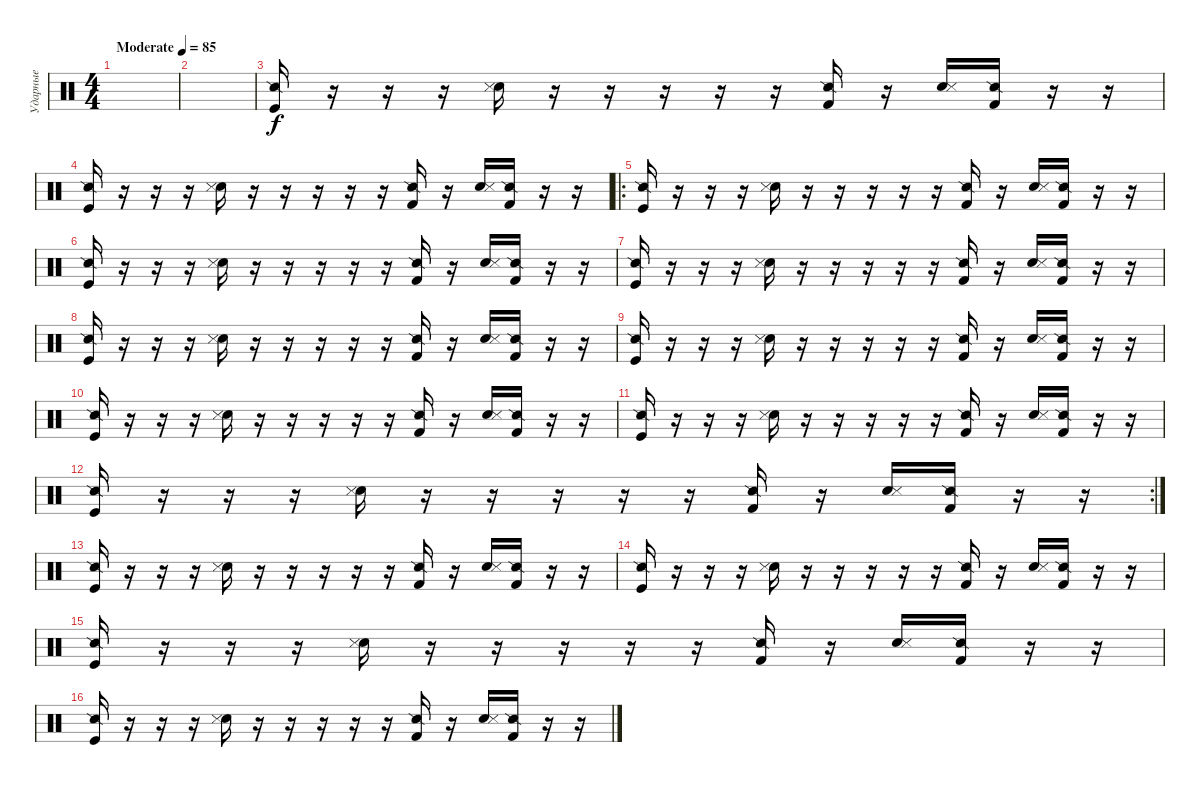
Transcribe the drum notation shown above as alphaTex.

\track ("Ударные" "Ударные") {instrument percussion}
\staff {score}
\articulation defaults
\ts (4 4)
\tempo (85 "Moderate")
\clef neutral
\ks c
|
|
("Kick (hit)" "Snare (side stick) 2").16 r.16 r.16 r.16 ("Snare (hit) 2" "Snare (side stick) 3").16 r.16 r.16 r.16 r.16 r.16 ("Kick (hit) 2" "Snare (side stick) 2").16 r.16 ("Snare (hit) 2" "Snare (side stick) 3").16 ("Kick (hit) 2" "Snare (side stick) 2").16 r.16 r.16 |
("Kick (hit)" "Snare (side stick) 2").16 r.16 r.16 r.16 ("Snare (hit) 2" "Snare (side stick) 3").16 r.16 r.16 r.16 r.16 r.16 ("Kick (hit) 2" "Snare (side stick) 2").16 r.16 ("Snare (hit) 2" "Snare (side stick) 3").16 ("Kick (hit) 2" "Snare (side stick) 2").16 r.16 r.16 |
\ro
("Kick (hit)" "Snare (side stick) 2").16 r.16 r.16 r.16 ("Snare (hit) 2" "Snare (side stick) 3").16 r.16 r.16 r.16 r.16 r.16 ("Kick (hit) 2" "Snare (side stick) 2").16 r.16 ("Snare (hit) 2" "Snare (side stick) 3").16 ("Kick (hit) 2" "Snare (side stick) 2").16 r.16 r.16 |
("Kick (hit)" "Snare (side stick) 2").16 r.16 r.16 r.16 ("Snare (hit) 2" "Snare (side stick) 3").16 r.16 r.16 r.16 r.16 r.16 ("Kick (hit) 2" "Snare (side stick) 2").16 r.16 ("Snare (hit) 2" "Snare (side stick) 3").16 ("Kick (hit) 2" "Snare (side stick) 2").16 r.16 r.16 |
("Kick (hit)" "Snare (side stick) 2").16 r.16 r.16 r.16 ("Snare (hit) 2" "Snare (side stick) 3").16 r.16 r.16 r.16 r.16 r.16 ("Kick (hit) 2" "Snare (side stick) 2").16 r.16 ("Snare (hit) 2" "Snare (side stick) 3").16 ("Kick (hit) 2" "Snare (side stick) 2").16 r.16 r.16 |
("Kick (hit)" "Snare (side stick) 2").16 r.16 r.16 r.16 ("Snare (hit) 2" "Snare (side stick) 3").16 r.16 r.16 r.16 r.16 r.16 ("Kick (hit) 2" "Snare (side stick) 2").16 r.16 ("Snare (hit) 2" "Snare (side stick) 3").16 ("Kick (hit) 2" "Snare (side stick) 2").16 r.16 r.16 |
("Kick (hit)" "Snare (side stick) 2").16 r.16 r.16 r.16 ("Snare (hit) 2" "Snare (side stick) 3").16 r.16 r.16 r.16 r.16 r.16 ("Kick (hit) 2" "Snare (side stick) 2").16 r.16 ("Snare (hit) 2" "Snare (side stick) 3").16 ("Kick (hit) 2" "Snare (side stick) 2").16 r.16 r.16 |
("Kick (hit)" "Snare (side stick) 2").16 r.16 r.16 r.16 ("Snare (hit) 2" "Snare (side stick) 3").16 r.16 r.16 r.16 r.16 r.16 ("Kick (hit) 2" "Snare (side stick) 2").16 r.16 ("Snare (hit) 2" "Snare (side stick) 3").16 ("Kick (hit) 2" "Snare (side stick) 2").16 r.16 r.16 |
("Kick (hit)" "Snare (side stick) 2").16 r.16 r.16 r.16 ("Snare (hit) 2" "Snare (side stick) 3").16 r.16 r.16 r.16 r.16 r.16 ("Kick (hit) 2" "Snare (side stick) 2").16 r.16 ("Snare (hit) 2" "Snare (side stick) 3").16 ("Kick (hit) 2" "Snare (side stick) 2").16 r.16 r.16 |
\rc 2
("Kick (hit)" "Snare (side stick) 2").16 r.16 r.16 r.16 ("Snare (hit) 2" "Snare (side stick) 3").16 r.16 r.16 r.16 r.16 r.16 ("Kick (hit) 2" "Snare (side stick) 2").16 r.16 ("Snare (hit) 2" "Snare (side stick) 3").16 ("Kick (hit) 2" "Snare (side stick) 2").16 r.16 r.16 |
("Kick (hit)" "Snare (side stick) 2").16 r.16 r.16 r.16 ("Snare (hit) 2" "Snare (side stick) 3").16 r.16 r.16 r.16 r.16 r.16 ("Kick (hit) 2" "Snare (side stick) 2").16 r.16 ("Snare (hit) 2" "Snare (side stick) 3").16 ("Kick (hit) 2" "Snare (side stick) 2").16 r.16 r.16 |
("Kick (hit)" "Snare (side stick) 2").16 r.16 r.16 r.16 ("Snare (hit) 2" "Snare (side stick) 3").16 r.16 r.16 r.16 r.16 r.16 ("Kick (hit) 2" "Snare (side stick) 2").16 r.16 ("Snare (hit) 2" "Snare (side stick) 3").16 ("Kick (hit) 2" "Snare (side stick) 2").16 r.16 r.16 |
("Kick (hit)" "Snare (side stick) 2").16 r.16 r.16 r.16 ("Snare (hit) 2" "Snare (side stick) 3").16 r.16 r.16 r.16 r.16 r.16 ("Kick (hit) 2" "Snare (side stick) 2").16 r.16 ("Snare (hit) 2" "Snare (side stick) 3").16 ("Kick (hit) 2" "Snare (side stick) 2").16 r.16 r.16 |
("Kick (hit)" "Snare (side stick) 2").16 r.16 r.16 r.16 ("Snare (hit) 2" "Snare (side stick) 3").16 r.16 r.16 r.16 r.16 r.16 ("Kick (hit) 2" "Snare (side stick) 2").16 r.16 ("Snare (hit) 2" "Snare (side stick) 3").16 ("Kick (hit) 2" "Snare (side stick) 2").16 r.16 r.16
